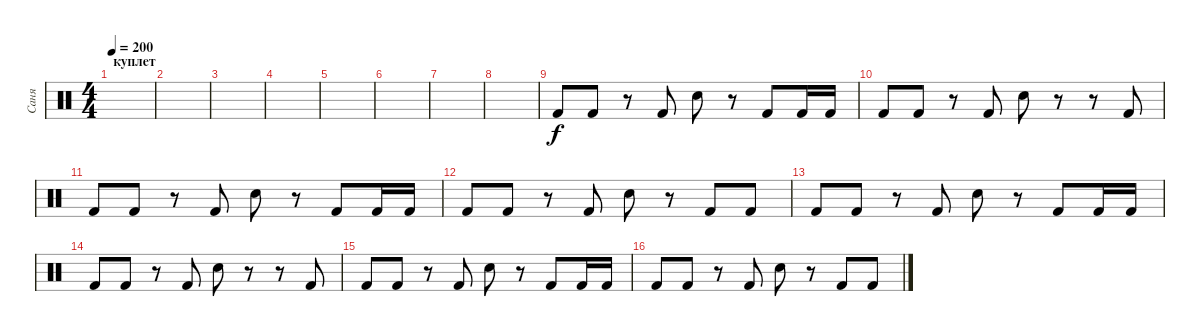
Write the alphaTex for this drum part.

\track ("Саня" "Саня") {instrument percussion}
\staff {score}
\articulation defaults
\ts (4 4)
\section ("" "куплет")
\tempo 200
\clef neutral
\ks c
|
|
|
|
|
|
|
|
"Kick (hit) 2".8 "Kick (hit) 2".8 r.8 "Kick (hit) 2".8 "Electric Snare (hit)".8 r.8 "Kick (hit) 2".8 "Kick (hit) 2".16 "Kick (hit) 2".16 |
"Kick (hit) 2".8 "Kick (hit) 2".8 r.8 "Kick (hit) 2".8 "Electric Snare (hit)".8 r.8 r.8 "Kick (hit) 2".8 |
"Kick (hit) 2".8 "Kick (hit) 2".8 r.8 "Kick (hit) 2".8 "Electric Snare (hit)".8 r.8 "Kick (hit) 2".8 "Kick (hit) 2".16 "Kick (hit) 2".16 |
"Kick (hit) 2".8 "Kick (hit) 2".8 r.8 "Kick (hit) 2".8 "Electric Snare (hit)".8 r.8 "Kick (hit) 2".8 "Kick (hit) 2".8 |
"Kick (hit) 2".8 "Kick (hit) 2".8 r.8 "Kick (hit) 2".8 "Electric Snare (hit)".8 r.8 "Kick (hit) 2".8 "Kick (hit) 2".16 "Kick (hit) 2".16 |
"Kick (hit) 2".8 "Kick (hit) 2".8 r.8 "Kick (hit) 2".8 "Electric Snare (hit)".8 r.8 r.8 "Kick (hit) 2".8 |
"Kick (hit) 2".8 "Kick (hit) 2".8 r.8 "Kick (hit) 2".8 "Electric Snare (hit)".8 r.8 "Kick (hit) 2".8 "Kick (hit) 2".16 "Kick (hit) 2".16 |
"Kick (hit) 2".8 "Kick (hit) 2".8 r.8 "Kick (hit) 2".8 "Electric Snare (hit)".8 r.8 "Kick (hit) 2".8 "Kick (hit) 2".8
